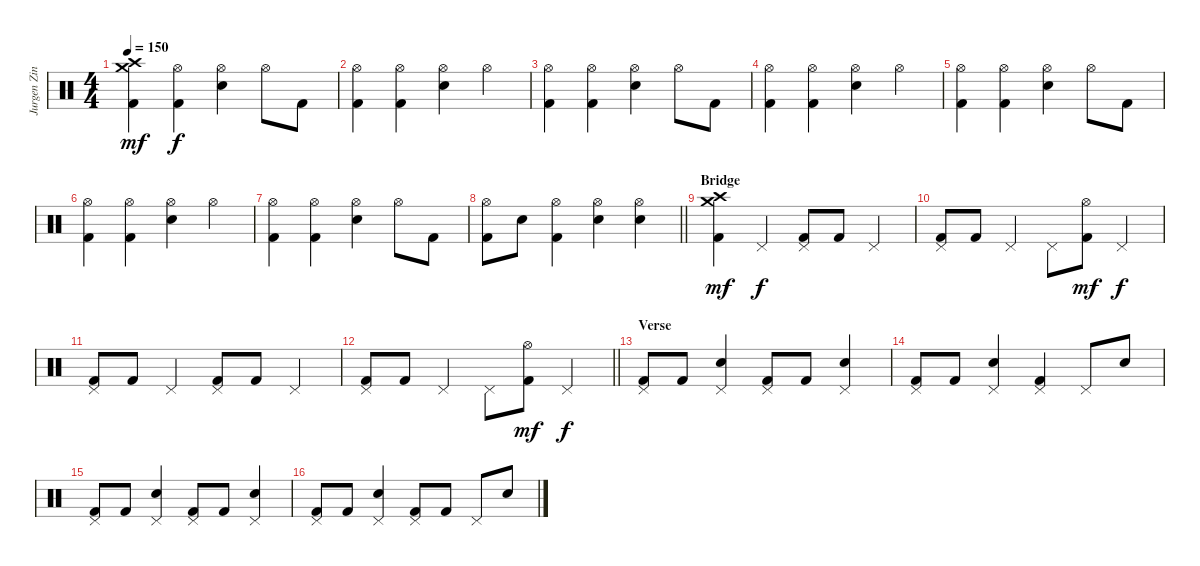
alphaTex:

\track ("Jurgen Zing" "Jurgen Zin") {instrument percussion}
\staff {score}
\articulation defaults
\ts (4 4)
\tempo 150
\clef neutral
\ks c
("Crash medium (hit)" "Crash high (hit)" "Kick (hit) 2").4{dy mf} ("Hi-Hat (open)" "Kick (hit) 2").4{dy f} ("Hi-Hat (open)" "Electric Snare (hit)").4 "Hi-Hat (open)".8 "Kick (hit) 2".8 |
("Hi-Hat (open)" "Kick (hit) 2").4 ("Hi-Hat (open)" "Kick (hit) 2").4 ("Hi-Hat (open)" "Electric Snare (hit)").4 "Hi-Hat (open)".4 |
("Hi-Hat (open)" "Kick (hit) 2").4 ("Hi-Hat (open)" "Kick (hit) 2").4 ("Hi-Hat (open)" "Electric Snare (hit)").4 "Hi-Hat (open)".8 "Kick (hit) 2".8 |
("Hi-Hat (open)" "Kick (hit) 2").4 ("Hi-Hat (open)" "Kick (hit) 2").4 ("Hi-Hat (open)" "Electric Snare (hit)").4 "Hi-Hat (open)".4 |
("Hi-Hat (open)" "Kick (hit) 2").4 ("Hi-Hat (open)" "Kick (hit) 2").4 ("Hi-Hat (open)" "Electric Snare (hit)").4 "Hi-Hat (open)".8 "Kick (hit) 2".8 |
("Hi-Hat (open)" "Kick (hit) 2").4 ("Hi-Hat (open)" "Kick (hit) 2").4 ("Hi-Hat (open)" "Electric Snare (hit)").4 "Hi-Hat (open)".4 |
("Hi-Hat (open)" "Kick (hit) 2").4 ("Hi-Hat (open)" "Kick (hit) 2").4 ("Hi-Hat (open)" "Electric Snare (hit)").4 "Hi-Hat (open)".8 "Kick (hit) 2".8 |
\barLineRight lightlight
("Hi-Hat (open)" "Kick (hit) 2").8 "Electric Snare (hit)".8 ("Hi-Hat (open)" "Kick (hit) 2").4 ("Hi-Hat (open)" "Electric Snare (hit)").4 ("Hi-Hat (open)" "Electric Snare (hit)").4 |
\section ("" "Bridge")
("Crash medium (hit)" "Crash high (hit)" "Kick (hit) 2").4{dy mf} "Pedal Hi-Hat (hit)".4{dy f} ("Pedal Hi-Hat (hit)" "Kick (hit) 2").8 "Kick (hit) 2".8 "Pedal Hi-Hat (hit)".4 |
("Pedal Hi-Hat (hit)" "Kick (hit) 2").8 "Kick (hit) 2".8 "Pedal Hi-Hat (hit)".4 "Pedal Hi-Hat (hit)".8 ("Hi-Hat (open)" "Kick (hit) 2").8{dy mf} "Pedal Hi-Hat (hit)".4{dy f} |
("Pedal Hi-Hat (hit)" "Kick (hit) 2").8 "Kick (hit) 2".8 "Pedal Hi-Hat (hit)".4 ("Pedal Hi-Hat (hit)" "Kick (hit) 2").8 "Kick (hit) 2".8 "Pedal Hi-Hat (hit)".4 |
\barLineRight lightlight
("Pedal Hi-Hat (hit)" "Kick (hit) 2").8 "Kick (hit) 2".8 "Pedal Hi-Hat (hit)".4 "Pedal Hi-Hat (hit)".8 ("Hi-Hat (open)" "Kick (hit) 2").8{dy mf} "Pedal Hi-Hat (hit)".4{dy f} |
\section ("" "Verse")
("Pedal Hi-Hat (hit)" "Kick (hit) 2").8 "Kick (hit) 2".8 ("Pedal Hi-Hat (hit)" "Electric Snare (hit)").4 ("Pedal Hi-Hat (hit)" "Kick (hit) 2").8 "Kick (hit) 2".8 ("Pedal Hi-Hat (hit)" "Electric Snare (hit)").4 |
("Pedal Hi-Hat (hit)" "Kick (hit) 2").8 "Kick (hit) 2".8 ("Pedal Hi-Hat (hit)" "Electric Snare (hit)").4 ("Pedal Hi-Hat (hit)" "Kick (hit) 2").4 "Pedal Hi-Hat (hit)".8 "Electric Snare (hit)".8 |
("Pedal Hi-Hat (hit)" "Kick (hit) 2").8 "Kick (hit) 2".8 ("Pedal Hi-Hat (hit)" "Electric Snare (hit)").4 ("Pedal Hi-Hat (hit)" "Kick (hit) 2").8 "Kick (hit) 2".8 ("Pedal Hi-Hat (hit)" "Electric Snare (hit)").4 |
("Pedal Hi-Hat (hit)" "Kick (hit) 2").8 "Kick (hit) 2".8 ("Pedal Hi-Hat (hit)" "Electric Snare (hit)").4 ("Pedal Hi-Hat (hit)" "Kick (hit) 2").8 "Kick (hit) 2".8 "Pedal Hi-Hat (hit)".8 "Electric Snare (hit)".8
